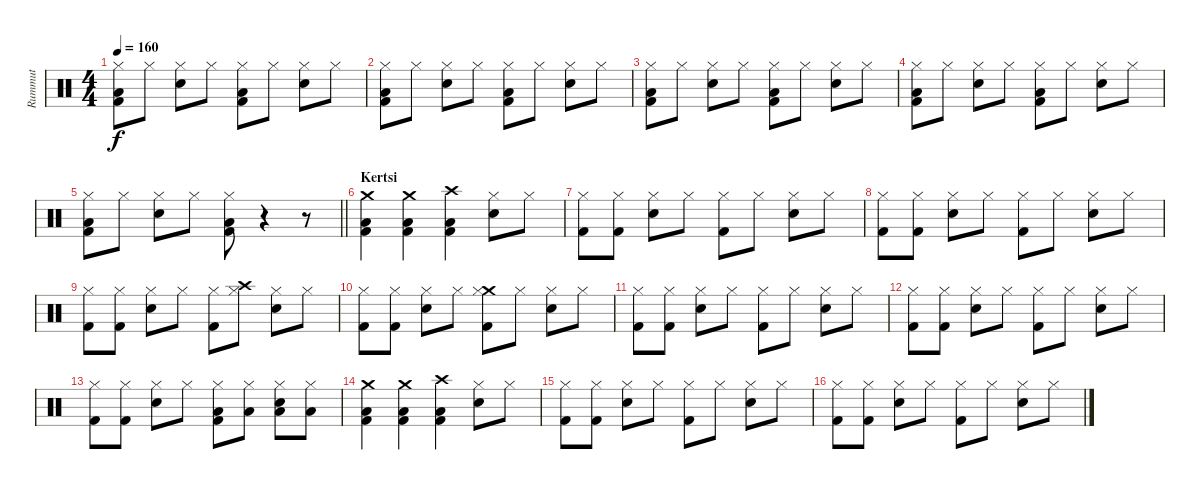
\track ("Rummut" "Rummut") {instrument percussion}
\staff {score}
\articulation defaults
\ts (4 4)
\tempo 160
\clef neutral
\ks c
("Kick (hit) 2" "Low Tom (hit)" "Hi-Hat (closed)").8{dy f} "Hi-Hat (closed)".8 ("Snare (hit) 2" "Hi-Hat (closed)").8 "Hi-Hat (closed)".8 ("Kick (hit) 2" "Low Tom (hit)" "Hi-Hat (closed)").8 "Hi-Hat (closed)".8 ("Snare (hit) 2" "Hi-Hat (closed)").8 "Hi-Hat (closed)".8 |
("Kick (hit) 2" "Low Tom (hit)" "Hi-Hat (closed)").8 "Hi-Hat (closed)".8 ("Snare (hit) 2" "Hi-Hat (closed)").8 "Hi-Hat (closed)".8 ("Kick (hit) 2" "Low Tom (hit)" "Hi-Hat (closed)").8 "Hi-Hat (closed)".8 ("Snare (hit) 2" "Hi-Hat (closed)").8 "Hi-Hat (closed)".8 |
("Kick (hit) 2" "Low Tom (hit)" "Hi-Hat (closed)").8 "Hi-Hat (closed)".8 ("Snare (hit) 2" "Hi-Hat (closed)").8 "Hi-Hat (closed)".8 ("Kick (hit) 2" "Low Tom (hit)" "Hi-Hat (closed)").8 "Hi-Hat (closed)".8 ("Snare (hit) 2" "Hi-Hat (closed)").8 "Hi-Hat (closed)".8 |
("Kick (hit) 2" "Low Tom (hit)" "Hi-Hat (closed)").8 "Hi-Hat (closed)".8 ("Snare (hit) 2" "Hi-Hat (closed)").8 "Hi-Hat (closed)".8 ("Kick (hit) 2" "Low Tom (hit)" "Hi-Hat (closed)").8 "Hi-Hat (closed)".8 ("Snare (hit) 2" "Hi-Hat (closed)").8 "Hi-Hat (closed)".8 |
\barLineRight lightlight
("Kick (hit) 2" "Low Tom (hit)" "Hi-Hat (closed)").8 "Hi-Hat (closed)".8 ("Snare (hit) 2" "Hi-Hat (closed)").8 "Hi-Hat (closed)".8 ("Kick (hit) 2" "Low Tom (hit)" "Hi-Hat (closed)").8 r.4 r.8 |
\section ("" "Kertsi")
("Kick (hit) 2" "Crash medium (hit)" "Low Tom (hit)").4 ("Kick (hit) 2" "Crash medium (hit)" "Low Tom (hit)").4 ("Kick (hit) 2" "Crash high (hit)" "Low Tom (hit)").4 ("Snare (hit) 2" "Hi-Hat (closed)").8 "Hi-Hat (closed)".8 |
("Kick (hit) 2" "Hi-Hat (closed)").8 ("Kick (hit) 2" "Hi-Hat (closed)").8 ("Snare (hit) 2" "Hi-Hat (closed)").8 "Hi-Hat (closed)".8 ("Kick (hit) 2" "Hi-Hat (closed)").8 "Hi-Hat (closed)".8 ("Snare (hit) 2" "Hi-Hat (closed)").8 "Hi-Hat (closed)".8 |
("Kick (hit) 2" "Hi-Hat (closed)").8 ("Kick (hit) 2" "Hi-Hat (closed)").8 ("Snare (hit) 2" "Hi-Hat (closed)").8 "Hi-Hat (closed)".8 ("Kick (hit) 2" "Hi-Hat (closed)").8 "Hi-Hat (closed)".8 ("Snare (hit) 2" "Hi-Hat (closed)").8 "Hi-Hat (closed)".8 |
("Kick (hit) 2" "Hi-Hat (closed)").8 ("Kick (hit) 2" "Hi-Hat (closed)").8 ("Snare (hit) 2" "Hi-Hat (closed)").8 "Hi-Hat (closed)".8 ("Kick (hit) 2" "Hi-Hat (closed)").8 ("Crash high (hit)" "Hi-Hat (closed)").8 ("Snare (hit) 2" "Hi-Hat (closed)").8 "Hi-Hat (closed)".8 |
("Kick (hit) 2" "Hi-Hat (closed)").8 ("Kick (hit) 2" "Hi-Hat (closed)").8 ("Snare (hit) 2" "Hi-Hat (closed)").8 "Hi-Hat (closed)".8 ("Crash medium (hit)" "Kick (hit) 2" "Hi-Hat (closed)").8 "Hi-Hat (closed)".8 ("Snare (hit) 2" "Hi-Hat (closed)").8 "Hi-Hat (closed)".8 |
("Kick (hit) 2" "Hi-Hat (closed)").8 ("Kick (hit) 2" "Hi-Hat (closed)").8 ("Snare (hit) 2" "Hi-Hat (closed)").8 "Hi-Hat (closed)".8 ("Kick (hit) 2" "Hi-Hat (closed)").8 "Hi-Hat (closed)".8 ("Snare (hit) 2" "Hi-Hat (closed)").8 "Hi-Hat (closed)".8 |
("Kick (hit) 2" "Hi-Hat (closed)").8 ("Kick (hit) 2" "Hi-Hat (closed)").8 ("Snare (hit) 2" "Hi-Hat (closed)").8 "Hi-Hat (closed)".8 ("Kick (hit) 2" "Hi-Hat (closed)").8 "Hi-Hat (closed)".8 ("Snare (hit) 2" "Hi-Hat (closed)").8 "Hi-Hat (closed)".8 |
("Kick (hit) 2" "Hi-Hat (closed)").8 ("Kick (hit) 2" "Hi-Hat (closed)").8 ("Snare (hit) 2" "Hi-Hat (closed)").8 "Hi-Hat (closed)".8 ("Kick (hit) 2" "Hi-Hat (closed)" "Low Tom (hit)").8 ("Hi-Hat (closed)" "Low Tom (hit)").8 ("Snare (hit) 2" "Hi-Hat (closed)" "Low Tom (hit)").8 ("Hi-Hat (closed)" "Low Tom (hit)").8 |
("Kick (hit) 2" "Crash medium (hit)" "Low Tom (hit)").4 ("Kick (hit) 2" "Crash medium (hit)" "Low Tom (hit)").4 ("Kick (hit) 2" "Crash high (hit)" "Low Tom (hit)").4 ("Snare (hit) 2" "Hi-Hat (closed)").8 "Hi-Hat (closed)".8 |
("Kick (hit) 2" "Hi-Hat (closed)").8 ("Kick (hit) 2" "Hi-Hat (closed)").8 ("Snare (hit) 2" "Hi-Hat (closed)").8 "Hi-Hat (closed)".8 ("Kick (hit) 2" "Hi-Hat (closed)").8 "Hi-Hat (closed)".8 ("Snare (hit) 2" "Hi-Hat (closed)").8 "Hi-Hat (closed)".8 |
("Kick (hit) 2" "Hi-Hat (closed)").8 ("Kick (hit) 2" "Hi-Hat (closed)").8 ("Snare (hit) 2" "Hi-Hat (closed)").8 "Hi-Hat (closed)".8 ("Kick (hit) 2" "Hi-Hat (closed)").8 "Hi-Hat (closed)".8 ("Snare (hit) 2" "Hi-Hat (closed)").8 "Hi-Hat (closed)".8
